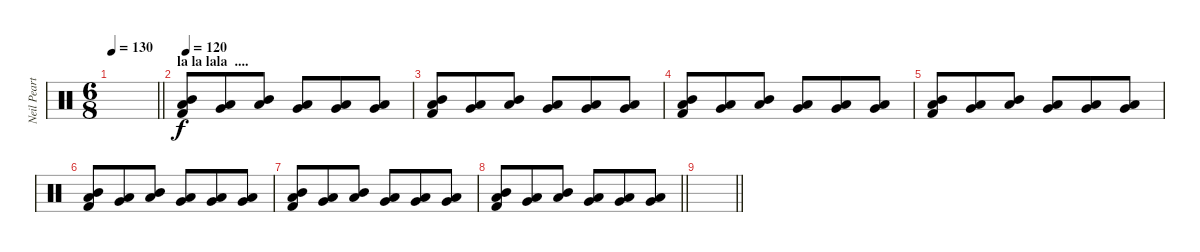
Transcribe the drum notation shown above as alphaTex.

\track ("Neil Peart " "Neil Peart") {instrument percussion bank 49}
\staff {score}
\articulation defaults
\ts (6 8)
\tempo 130
\clef neutral
\barLineRight lightlight
\ks c
|
\section ("" "la la lala  ....")
\tempo 120
("Low Tom (hit)" "Mid Tom (hit)" "Kick (hit) 2").8 ("Low Floor Tom (hit)" "Very Low Tom (hit)").8 ("Low Tom (hit)" "Mid Tom (hit)").8 ("Low Floor Tom (hit)" "Very Low Tom (hit)").8 ("Low Floor Tom (hit)" "Very Low Tom (hit)").8 ("Low Floor Tom (hit)" "Very Low Tom (hit)").8 |
("Low Tom (hit)" "Mid Tom (hit)" "Kick (hit) 2").8 ("Low Floor Tom (hit)" "Very Low Tom (hit)").8 ("Low Tom (hit)" "Mid Tom (hit)").8 ("Low Floor Tom (hit)" "Very Low Tom (hit)").8 ("Low Floor Tom (hit)" "Very Low Tom (hit)").8 ("Low Floor Tom (hit)" "Very Low Tom (hit)").8 |
("Low Tom (hit)" "Mid Tom (hit)" "Kick (hit) 2").8 ("Low Floor Tom (hit)" "Very Low Tom (hit)").8 ("Low Tom (hit)" "Mid Tom (hit)").8 ("Low Floor Tom (hit)" "Very Low Tom (hit)").8 ("Low Floor Tom (hit)" "Very Low Tom (hit)").8 ("Low Floor Tom (hit)" "Very Low Tom (hit)").8 |
("Low Tom (hit)" "Mid Tom (hit)" "Kick (hit) 2").8 ("Low Floor Tom (hit)" "Very Low Tom (hit)").8 ("Low Tom (hit)" "Mid Tom (hit)").8 ("Low Floor Tom (hit)" "Very Low Tom (hit)").8 ("Low Floor Tom (hit)" "Very Low Tom (hit)").8 ("Low Floor Tom (hit)" "Very Low Tom (hit)").8 |
("Low Tom (hit)" "Mid Tom (hit)" "Kick (hit) 2").8 ("Low Floor Tom (hit)" "Very Low Tom (hit)").8 ("Low Tom (hit)" "Mid Tom (hit)").8 ("Low Floor Tom (hit)" "Very Low Tom (hit)").8 ("Low Floor Tom (hit)" "Very Low Tom (hit)").8 ("Low Floor Tom (hit)" "Very Low Tom (hit)").8 |
("Low Tom (hit)" "Mid Tom (hit)" "Kick (hit) 2").8 ("Low Floor Tom (hit)" "Very Low Tom (hit)").8 ("Low Tom (hit)" "Mid Tom (hit)").8 ("Low Floor Tom (hit)" "Very Low Tom (hit)").8 ("Low Floor Tom (hit)" "Very Low Tom (hit)").8 ("Low Floor Tom (hit)" "Very Low Tom (hit)").8 |
\barLineRight lightlight
("Low Tom (hit)" "Mid Tom (hit)" "Kick (hit) 2").8 ("Low Floor Tom (hit)" "Very Low Tom (hit)").8 ("Low Tom (hit)" "Mid Tom (hit)").8 ("Low Floor Tom (hit)" "Very Low Tom (hit)").8 ("Low Floor Tom (hit)" "Very Low Tom (hit)").8 ("Low Floor Tom (hit)" "Very Low Tom (hit)").8 |
\barLineRight lightlight
